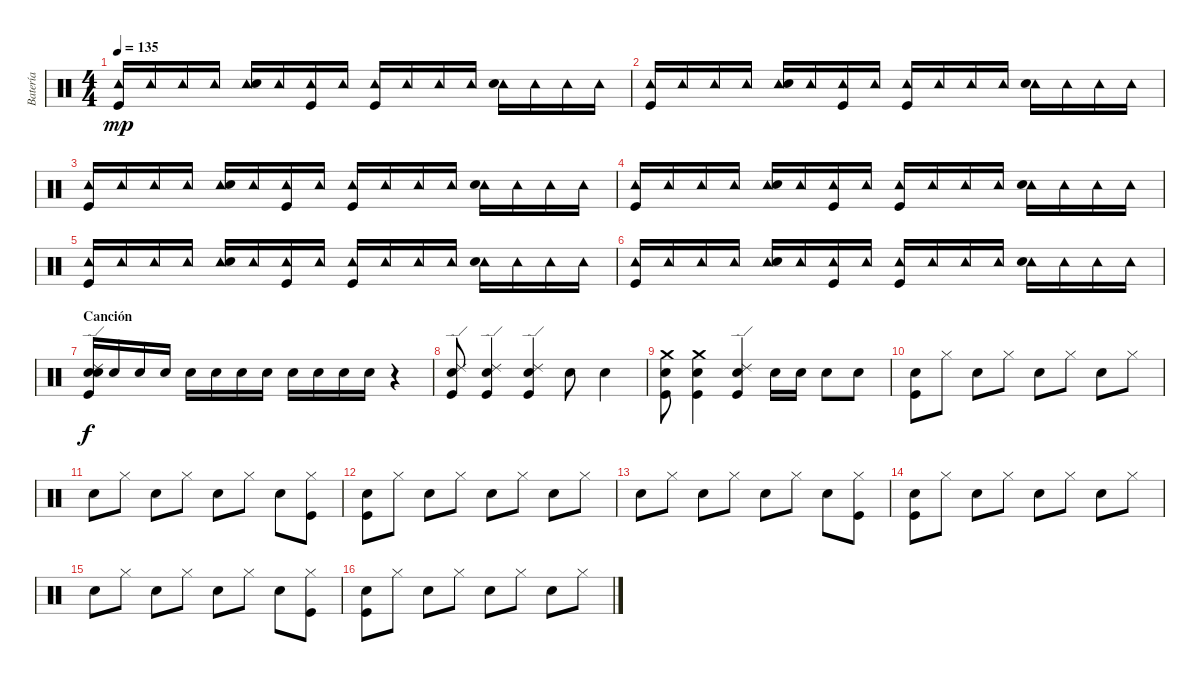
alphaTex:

\track ("Batería" "Batería") {instrument percussion}
\staff {score}
\articulation defaults
\ts (4 4)
\tempo 135
\clef neutral
\ks c
("Tambourine (hit)" "Kick (hit)").16{dy mp} "Tambourine (hit)".16 "Tambourine (hit)".16 "Tambourine (hit)".16 ("Tambourine (hit)" "Snare (hit) 2").16 "Tambourine (hit)".16 ("Tambourine (hit)" "Kick (hit)").16 "Tambourine (hit)".16 ("Tambourine (hit)" "Kick (hit)").16 "Tambourine (hit)".16 "Tambourine (hit)".16 "Tambourine (hit)".16 ("Tambourine (hit)" "Snare (hit) 2").16 "Tambourine (hit)".16 "Tambourine (hit)".16 "Tambourine (hit)".16 |
("Tambourine (hit)" "Kick (hit)").16 "Tambourine (hit)".16 "Tambourine (hit)".16 "Tambourine (hit)".16 ("Tambourine (hit)" "Snare (hit) 2").16 "Tambourine (hit)".16 ("Tambourine (hit)" "Kick (hit)").16 "Tambourine (hit)".16 ("Tambourine (hit)" "Kick (hit)").16 "Tambourine (hit)".16 "Tambourine (hit)".16 "Tambourine (hit)".16 ("Tambourine (hit)" "Snare (hit) 2").16 "Tambourine (hit)".16 "Tambourine (hit)".16 "Tambourine (hit)".16 |
("Tambourine (hit)" "Kick (hit)").16 "Tambourine (hit)".16 "Tambourine (hit)".16 "Tambourine (hit)".16 ("Tambourine (hit)" "Snare (hit) 2").16 "Tambourine (hit)".16 ("Tambourine (hit)" "Kick (hit)").16 "Tambourine (hit)".16 ("Tambourine (hit)" "Kick (hit)").16 "Tambourine (hit)".16 "Tambourine (hit)".16 "Tambourine (hit)".16 ("Tambourine (hit)" "Snare (hit) 2").16 "Tambourine (hit)".16 "Tambourine (hit)".16 "Tambourine (hit)".16 |
("Tambourine (hit)" "Kick (hit)").16 "Tambourine (hit)".16 "Tambourine (hit)".16 "Tambourine (hit)".16 ("Tambourine (hit)" "Snare (hit) 2").16 "Tambourine (hit)".16 ("Tambourine (hit)" "Kick (hit)").16 "Tambourine (hit)".16 ("Tambourine (hit)" "Kick (hit)").16 "Tambourine (hit)".16 "Tambourine (hit)".16 "Tambourine (hit)".16 ("Tambourine (hit)" "Snare (hit) 2").16 "Tambourine (hit)".16 "Tambourine (hit)".16 "Tambourine (hit)".16 |
("Tambourine (hit)" "Kick (hit)").16 "Tambourine (hit)".16 "Tambourine (hit)".16 "Tambourine (hit)".16 ("Tambourine (hit)" "Snare (hit) 2").16 "Tambourine (hit)".16 ("Tambourine (hit)" "Kick (hit)").16 "Tambourine (hit)".16 ("Tambourine (hit)" "Kick (hit)").16 "Tambourine (hit)".16 "Tambourine (hit)".16 "Tambourine (hit)".16 ("Tambourine (hit)" "Snare (hit) 2").16 "Tambourine (hit)".16 "Tambourine (hit)".16 "Tambourine (hit)".16 |
("Tambourine (hit)" "Kick (hit)").16 "Tambourine (hit)".16 "Tambourine (hit)".16 "Tambourine (hit)".16 ("Tambourine (hit)" "Snare (hit) 2").16 "Tambourine (hit)".16 ("Tambourine (hit)" "Kick (hit)").16 "Tambourine (hit)".16 ("Tambourine (hit)" "Kick (hit)").16 "Tambourine (hit)".16 "Tambourine (hit)".16 "Tambourine (hit)".16 ("Tambourine (hit)" "Snare (hit) 2").16 "Tambourine (hit)".16 "Tambourine (hit)".16 "Tambourine (hit)".16 |
\section ("" "Canción")
("Ride (edge) 2" "Snare (hit) 2" "Kick (hit)" "Snare (hit) 2").16{dy f} "Snare (hit) 2".16 "Snare (hit) 2".16 "Snare (hit) 2".16 "Snare (hit) 2".16 "Snare (hit) 2".16 "Snare (hit) 2".16 "Snare (hit) 2".16 "Snare (hit) 2".16 "Snare (hit) 2".16 "Snare (hit) 2".16 "Snare (hit) 2".16 r.4 |
("Snare (hit) 2" "Ride (edge) 2" "Kick (hit)").8 ("Snare (hit) 2" "Ride (edge) 2" "Kick (hit)").4 ("Snare (hit) 2" "Ride (edge) 2" "Kick (hit)").4 "Snare (hit) 2".8 "Snare (hit) 2".4 |
("Snare (hit) 2" "Crash medium (hit)" "Kick (hit)").8 ("Snare (hit) 2" "Crash medium (hit)" "Kick (hit)").4 ("Snare (hit) 2" "Ride (edge) 2" "Kick (hit)").4 "Snare (hit) 2".16 "Snare (hit) 2".16 "Snare (hit) 2".8 "Snare (hit) 2".8 |
("Kick (hit)" "Snare (hit) 2").8 "Hi-Hat (closed)".8 "Snare (hit) 2".8 "Hi-Hat (closed)".8 "Snare (hit) 2".8 "Hi-Hat (closed)".8 "Snare (hit) 2".8 "Hi-Hat (closed)".8 |
"Snare (hit) 2".8 "Hi-Hat (closed)".8 "Snare (hit) 2".8 "Hi-Hat (closed)".8 "Snare (hit) 2".8 "Hi-Hat (closed)".8 "Snare (hit) 2".8 ("Kick (hit)" "Hi-Hat (closed)").8 |
("Kick (hit)" "Snare (hit) 2").8 "Hi-Hat (closed)".8 "Snare (hit) 2".8 "Hi-Hat (closed)".8 "Snare (hit) 2".8 "Hi-Hat (closed)".8 "Snare (hit) 2".8 "Hi-Hat (closed)".8 |
"Snare (hit) 2".8 "Hi-Hat (closed)".8 "Snare (hit) 2".8 "Hi-Hat (closed)".8 "Snare (hit) 2".8 "Hi-Hat (closed)".8 "Snare (hit) 2".8 ("Kick (hit)" "Hi-Hat (closed)").8 |
("Kick (hit)" "Snare (hit) 2").8 "Hi-Hat (closed)".8 "Snare (hit) 2".8 "Hi-Hat (closed)".8 "Snare (hit) 2".8 "Hi-Hat (closed)".8 "Snare (hit) 2".8 "Hi-Hat (closed)".8 |
"Snare (hit) 2".8 "Hi-Hat (closed)".8 "Snare (hit) 2".8 "Hi-Hat (closed)".8 "Snare (hit) 2".8 "Hi-Hat (closed)".8 "Snare (hit) 2".8 ("Kick (hit)" "Hi-Hat (closed)").8 |
("Kick (hit)" "Snare (hit) 2").8 "Hi-Hat (closed)".8 "Snare (hit) 2".8 "Hi-Hat (closed)".8 "Snare (hit) 2".8 "Hi-Hat (closed)".8 "Snare (hit) 2".8 "Hi-Hat (closed)".8
